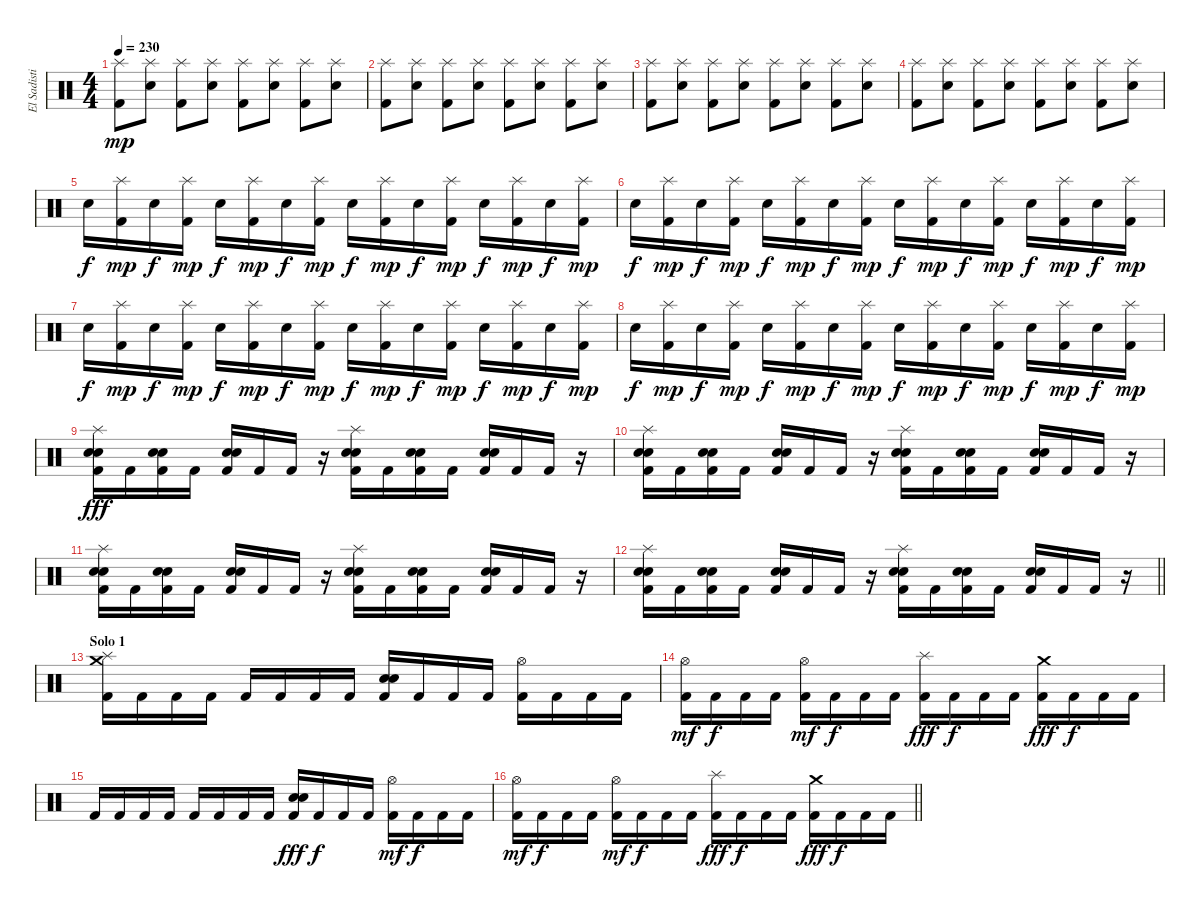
\track ("El Sadistico" "El Sadisti") {instrument percussion}
\staff {score}
\articulation defaults
\ts (4 4)
\tempo 230
\clef neutral
\ks c
("Splash (hit)" "Kick (hit) 2").8{dy mp} ("Splash (hit)" "Electric Snare (hit)").8 ("Splash (hit)" "Kick (hit) 2").8 ("Splash (hit)" "Electric Snare (hit)").8 ("Splash (hit)" "Kick (hit) 2").8 ("Splash (hit)" "Electric Snare (hit)").8 ("Splash (hit)" "Kick (hit) 2").8 ("Splash (hit)" "Electric Snare (hit)").8 |
("Splash (hit)" "Kick (hit) 2").8 ("Splash (hit)" "Electric Snare (hit)").8 ("Splash (hit)" "Kick (hit) 2").8 ("Splash (hit)" "Electric Snare (hit)").8 ("Splash (hit)" "Kick (hit) 2").8 ("Splash (hit)" "Electric Snare (hit)").8 ("Splash (hit)" "Kick (hit) 2").8 ("Splash (hit)" "Electric Snare (hit)").8 |
("Splash (hit)" "Kick (hit) 2").8 ("Splash (hit)" "Electric Snare (hit)").8 ("Splash (hit)" "Kick (hit) 2").8 ("Splash (hit)" "Electric Snare (hit)").8 ("Splash (hit)" "Kick (hit) 2").8 ("Splash (hit)" "Electric Snare (hit)").8 ("Splash (hit)" "Kick (hit) 2").8 ("Splash (hit)" "Electric Snare (hit)").8 |
("Splash (hit)" "Kick (hit) 2").8 ("Splash (hit)" "Electric Snare (hit)").8 ("Splash (hit)" "Kick (hit) 2").8 ("Splash (hit)" "Electric Snare (hit)").8 ("Splash (hit)" "Kick (hit) 2").8 ("Splash (hit)" "Electric Snare (hit)").8 ("Splash (hit)" "Kick (hit) 2").8 ("Splash (hit)" "Electric Snare (hit)").8 |
"Electric Snare (hit)".16{dy f} ("Splash (hit)" "Kick (hit) 2").16{dy mp} "Electric Snare (hit)".16{dy f} ("Splash (hit)" "Kick (hit) 2").16{dy mp} "Electric Snare (hit)".16{dy f} ("Splash (hit)" "Kick (hit) 2").16{dy mp} "Electric Snare (hit)".16{dy f} ("Splash (hit)" "Kick (hit) 2").16{dy mp} "Electric Snare (hit)".16{dy f} ("Splash (hit)" "Kick (hit) 2").16{dy mp} "Electric Snare (hit)".16{dy f} ("Splash (hit)" "Kick (hit) 2").16{dy mp} "Electric Snare (hit)".16{dy f} ("Splash (hit)" "Kick (hit) 2").16{dy mp} "Electric Snare (hit)".16{dy f} ("Splash (hit)" "Kick (hit) 2").16{dy mp} |
"Electric Snare (hit)".16{dy f} ("Splash (hit)" "Kick (hit) 2").16{dy mp} "Electric Snare (hit)".16{dy f} ("Splash (hit)" "Kick (hit) 2").16{dy mp} "Electric Snare (hit)".16{dy f} ("Splash (hit)" "Kick (hit) 2").16{dy mp} "Electric Snare (hit)".16{dy f} ("Splash (hit)" "Kick (hit) 2").16{dy mp} "Electric Snare (hit)".16{dy f} ("Splash (hit)" "Kick (hit) 2").16{dy mp} "Electric Snare (hit)".16{dy f} ("Splash (hit)" "Kick (hit) 2").16{dy mp} "Electric Snare (hit)".16{dy f} ("Splash (hit)" "Kick (hit) 2").16{dy mp} "Electric Snare (hit)".16{dy f} ("Splash (hit)" "Kick (hit) 2").16{dy mp} |
"Electric Snare (hit)".16{dy f} ("Splash (hit)" "Kick (hit) 2").16{dy mp} "Electric Snare (hit)".16{dy f} ("Splash (hit)" "Kick (hit) 2").16{dy mp} "Electric Snare (hit)".16{dy f} ("Splash (hit)" "Kick (hit) 2").16{dy mp} "Electric Snare (hit)".16{dy f} ("Splash (hit)" "Kick (hit) 2").16{dy mp} "Electric Snare (hit)".16{dy f} ("Splash (hit)" "Kick (hit) 2").16{dy mp} "Electric Snare (hit)".16{dy f} ("Splash (hit)" "Kick (hit) 2").16{dy mp} "Electric Snare (hit)".16{dy f} ("Splash (hit)" "Kick (hit) 2").16{dy mp} "Electric Snare (hit)".16{dy f} ("Splash (hit)" "Kick (hit) 2").16{dy mp} |
"Electric Snare (hit)".16{dy f} ("Splash (hit)" "Kick (hit) 2").16{dy mp} "Electric Snare (hit)".16{dy f} ("Splash (hit)" "Kick (hit) 2").16{dy mp} "Electric Snare (hit)".16{dy f} ("Splash (hit)" "Kick (hit) 2").16{dy mp} "Electric Snare (hit)".16{dy f} ("Splash (hit)" "Kick (hit) 2").16{dy mp} "Electric Snare (hit)".16{dy f} ("Splash (hit)" "Kick (hit) 2").16{dy mp} "Electric Snare (hit)".16{dy f} ("Splash (hit)" "Kick (hit) 2").16{dy mp} "Electric Snare (hit)".16{dy f} ("Splash (hit)" "Kick (hit) 2").16{dy mp} "Electric Snare (hit)".16{dy f} ("Splash (hit)" "Kick (hit) 2").16{dy mp} |
("Splash (hit)" "Electric Snare (hit)" "Snare (hit) 2" "Kick (hit) 2").16{dy fff} "Kick (hit) 2".16 ("Electric Snare (hit)" "Snare (hit) 2" "Kick (hit) 2").16 "Kick (hit) 2".16 ("Electric Snare (hit)" "Snare (hit) 2" "Kick (hit) 2").16 "Kick (hit) 2".16 "Kick (hit) 2".16 r.16 ("Splash (hit)" "Electric Snare (hit)" "Snare (hit) 2" "Kick (hit) 2").16 "Kick (hit) 2".16 ("Electric Snare (hit)" "Snare (hit) 2" "Kick (hit) 2").16 "Kick (hit) 2".16 ("Electric Snare (hit)" "Snare (hit) 2" "Kick (hit) 2").16 "Kick (hit) 2".16 "Kick (hit) 2".16 r.16 |
("Splash (hit)" "Electric Snare (hit)" "Snare (hit) 2" "Kick (hit) 2").16 "Kick (hit) 2".16 ("Electric Snare (hit)" "Snare (hit) 2" "Kick (hit) 2").16 "Kick (hit) 2".16 ("Electric Snare (hit)" "Snare (hit) 2" "Kick (hit) 2").16 "Kick (hit) 2".16 "Kick (hit) 2".16 r.16 ("Splash (hit)" "Electric Snare (hit)" "Snare (hit) 2" "Kick (hit) 2").16 "Kick (hit) 2".16 ("Electric Snare (hit)" "Snare (hit) 2" "Kick (hit) 2").16 "Kick (hit) 2".16 ("Electric Snare (hit)" "Snare (hit) 2" "Kick (hit) 2").16 "Kick (hit) 2".16 "Kick (hit) 2".16 r.16 |
("Splash (hit)" "Electric Snare (hit)" "Snare (hit) 2" "Kick (hit) 2").16 "Kick (hit) 2".16 ("Electric Snare (hit)" "Snare (hit) 2" "Kick (hit) 2").16 "Kick (hit) 2".16 ("Electric Snare (hit)" "Snare (hit) 2" "Kick (hit) 2").16 "Kick (hit) 2".16 "Kick (hit) 2".16 r.16 ("Splash (hit)" "Electric Snare (hit)" "Snare (hit) 2" "Kick (hit) 2").16 "Kick (hit) 2".16 ("Electric Snare (hit)" "Snare (hit) 2" "Kick (hit) 2").16 "Kick (hit) 2".16 ("Electric Snare (hit)" "Snare (hit) 2" "Kick (hit) 2").16 "Kick (hit) 2".16 "Kick (hit) 2".16 r.16 |
\barLineRight lightlight
("Splash (hit)" "Electric Snare (hit)" "Snare (hit) 2" "Kick (hit) 2").16 "Kick (hit) 2".16 ("Electric Snare (hit)" "Snare (hit) 2" "Kick (hit) 2").16 "Kick (hit) 2".16 ("Electric Snare (hit)" "Snare (hit) 2" "Kick (hit) 2").16 "Kick (hit) 2".16 "Kick (hit) 2".16 r.16 ("Splash (hit)" "Electric Snare (hit)" "Snare (hit) 2" "Kick (hit) 2").16 "Kick (hit) 2".16 ("Electric Snare (hit)" "Snare (hit) 2" "Kick (hit) 2").16 "Kick (hit) 2".16 ("Electric Snare (hit)" "Snare (hit) 2" "Kick (hit) 2").16 "Kick (hit) 2".16 "Kick (hit) 2".16 r.16 |
\section ("" "Solo 1")
("Crash medium (hit)" "Splash (hit)" "Kick (hit) 2").16 "Kick (hit) 2".16 "Kick (hit) 2".16 "Kick (hit) 2".16 "Kick (hit) 2".16 "Kick (hit) 2".16 "Kick (hit) 2".16 "Kick (hit) 2".16 ("Snare (hit) 2" "Electric Snare (hit)" "Kick (hit) 2").16 "Kick (hit) 2".16 "Kick (hit) 2".16 "Kick (hit) 2".16 ("Hi-Hat (open)" "Kick (hit) 2").16 "Kick (hit) 2".16 "Kick (hit) 2".16 "Kick (hit) 2".16 |
("Hi-Hat (open)" "Kick (hit) 2").16{dy mf} "Kick (hit) 2".16{dy f} "Kick (hit) 2".16 "Kick (hit) 2".16 ("Hi-Hat (open)" "Kick (hit) 2").16{dy mf} "Kick (hit) 2".16{dy f} "Kick (hit) 2".16 "Kick (hit) 2".16 ("Splash (hit)" "Kick (hit) 2").16{dy fff} "Kick (hit) 2".16{dy f} "Kick (hit) 2".16 "Kick (hit) 2".16 ("Crash medium (hit)" "Kick (hit) 2").16{dy fff} "Kick (hit) 2".16{dy f} "Kick (hit) 2".16 "Kick (hit) 2".16 |
"Kick (hit) 2".16 "Kick (hit) 2".16 "Kick (hit) 2".16 "Kick (hit) 2".16 "Kick (hit) 2".16 "Kick (hit) 2".16 "Kick (hit) 2".16 "Kick (hit) 2".16 ("Snare (hit) 2" "Electric Snare (hit)" "Kick (hit) 2").16{dy fff} "Kick (hit) 2".16{dy f} "Kick (hit) 2".16 "Kick (hit) 2".16 ("Hi-Hat (open)" "Kick (hit) 2").16{dy mf} "Kick (hit) 2".16{dy f} "Kick (hit) 2".16 "Kick (hit) 2".16 |
\barLineRight lightlight
("Hi-Hat (open)" "Kick (hit) 2").16{dy mf} "Kick (hit) 2".16{dy f} "Kick (hit) 2".16 "Kick (hit) 2".16 ("Hi-Hat (open)" "Kick (hit) 2").16{dy mf} "Kick (hit) 2".16{dy f} "Kick (hit) 2".16 "Kick (hit) 2".16 ("Splash (hit)" "Kick (hit) 2").16{dy fff} "Kick (hit) 2".16{dy f} "Kick (hit) 2".16 "Kick (hit) 2".16 ("Crash medium (hit)" "Kick (hit) 2").16{dy fff} "Kick (hit) 2".16{dy f} "Kick (hit) 2".16 "Kick (hit) 2".16
